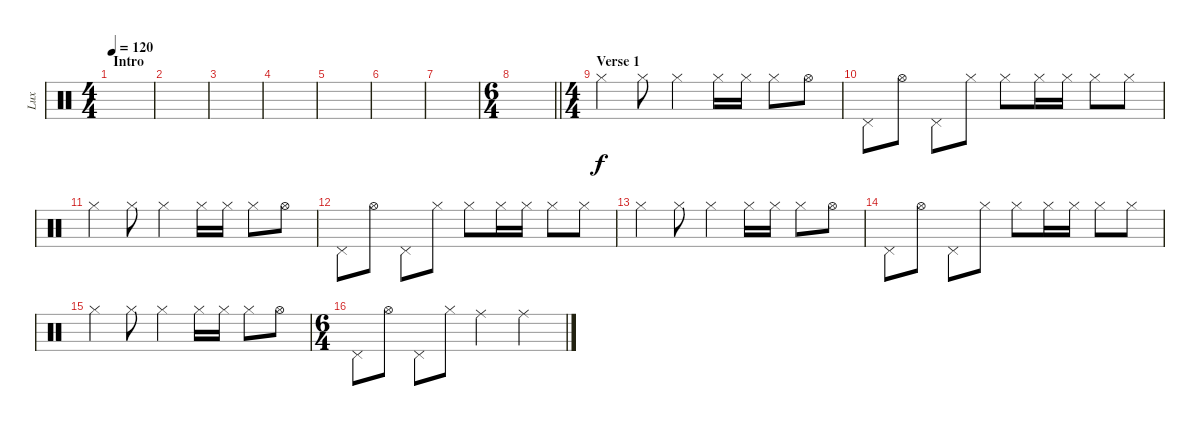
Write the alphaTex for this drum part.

\track ("Lux" "Lux") {instrument percussion}
\staff {score}
\articulation defaults
\ts (4 4)
\section ("" "Intro")
\tempo 120
\clef neutral
\ks c
|
|
|
|
|
|
|
\ts (6 4)
\barLineRight lightlight
|
\ts (4 4)
\section ("" "Verse 1")
"Hi-Hat (closed)".4 "Hi-Hat (closed)".8 "Hi-Hat (closed)".4 "Hi-Hat (closed)".16 "Hi-Hat (closed)".16 "Hi-Hat (closed)".8 "Hi-Hat (open)".8 |
"Pedal Hi-Hat (hit)".8 "Hi-Hat (open)".8 "Pedal Hi-Hat (hit)".8 "Hi-Hat (closed)".8 "Hi-Hat (closed)".8 "Hi-Hat (closed)".16 "Hi-Hat (closed)".16 "Hi-Hat (closed)".8 "Hi-Hat (closed)".8 |
"Hi-Hat (closed)".4 "Hi-Hat (closed)".8 "Hi-Hat (closed)".4 "Hi-Hat (closed)".16 "Hi-Hat (closed)".16 "Hi-Hat (closed)".8 "Hi-Hat (open)".8 |
"Pedal Hi-Hat (hit)".8 "Hi-Hat (open)".8 "Pedal Hi-Hat (hit)".8 "Hi-Hat (closed)".8 "Hi-Hat (closed)".8 "Hi-Hat (closed)".16 "Hi-Hat (closed)".16 "Hi-Hat (closed)".8 "Hi-Hat (closed)".8 |
"Hi-Hat (closed)".4 "Hi-Hat (closed)".8 "Hi-Hat (closed)".4 "Hi-Hat (closed)".16 "Hi-Hat (closed)".16 "Hi-Hat (closed)".8 "Hi-Hat (open)".8 |
"Pedal Hi-Hat (hit)".8 "Hi-Hat (open)".8 "Pedal Hi-Hat (hit)".8 "Hi-Hat (closed)".8 "Hi-Hat (closed)".8 "Hi-Hat (closed)".16 "Hi-Hat (closed)".16 "Hi-Hat (closed)".8 "Hi-Hat (closed)".8 |
"Hi-Hat (closed)".4 "Hi-Hat (closed)".8 "Hi-Hat (closed)".4 "Hi-Hat (closed)".16 "Hi-Hat (closed)".16 "Hi-Hat (closed)".8 "Hi-Hat (open)".8 |
\ts (6 4)
"Pedal Hi-Hat (hit)".8 "Hi-Hat (open)".8 "Pedal Hi-Hat (hit)".8 "Hi-Hat (closed)".8 "Ride (middle)".2 "Ride (middle)".2
